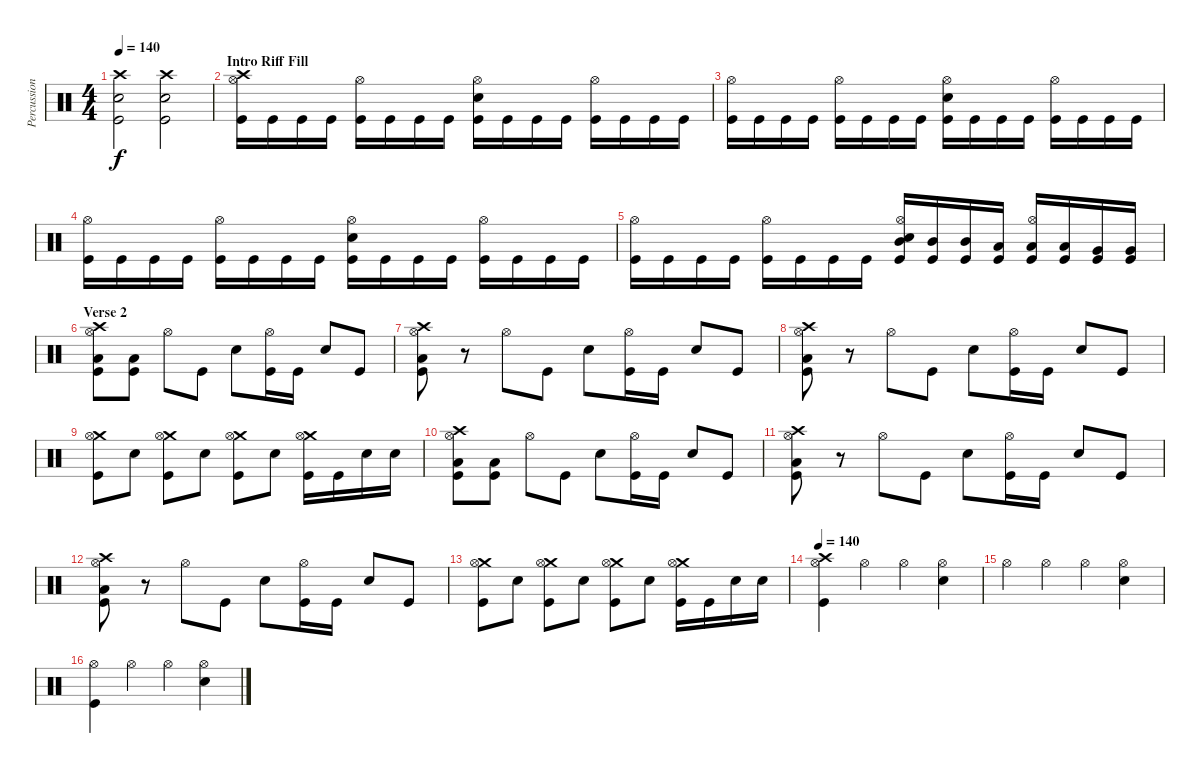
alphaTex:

\track ("Percussion" "Percussion") {instrument percussion}
\staff {score}
\articulation defaults
\ts (4 4)
\tempo 140
\clef neutral
\ks c
("Crash high (hit)" "Electric Snare (hit)" "Kick (hit)").2{dy f} ("Crash high (hit)" "Electric Snare (hit)" "Kick (hit)").2 |
\section ("" "Intro Riff Fill")
("Crash high (hit)" "Hi-Hat (open)" "Kick (hit)").16 "Kick (hit)".16 "Kick (hit)".16 "Kick (hit)".16 ("Hi-Hat (open)" "Kick (hit)").16 "Kick (hit)".16 "Kick (hit)".16 "Kick (hit)".16 ("Hi-Hat (open)" "Electric Snare (hit)" "Kick (hit)").16 "Kick (hit)".16 "Kick (hit)".16 "Kick (hit)".16 ("Hi-Hat (open)" "Kick (hit)").16 "Kick (hit)".16 "Kick (hit)".16 "Kick (hit)".16 |
("Hi-Hat (open)" "Kick (hit)").16 "Kick (hit)".16 "Kick (hit)".16 "Kick (hit)".16 ("Hi-Hat (open)" "Kick (hit)").16 "Kick (hit)".16 "Kick (hit)".16 "Kick (hit)".16 ("Hi-Hat (open)" "Electric Snare (hit)" "Kick (hit)").16 "Kick (hit)".16 "Kick (hit)".16 "Kick (hit)".16 ("Hi-Hat (open)" "Kick (hit)").16 "Kick (hit)".16 "Kick (hit)".16 "Kick (hit)".16 |
("Hi-Hat (open)" "Kick (hit)").16 "Kick (hit)".16 "Kick (hit)".16 "Kick (hit)".16 ("Hi-Hat (open)" "Kick (hit)").16 "Kick (hit)".16 "Kick (hit)".16 "Kick (hit)".16 ("Hi-Hat (open)" "Electric Snare (hit)" "Kick (hit)").16 "Kick (hit)".16 "Kick (hit)".16 "Kick (hit)".16 ("Hi-Hat (open)" "Kick (hit)").16 "Kick (hit)".16 "Kick (hit)".16 "Kick (hit)".16 |
("Hi-Hat (open)" "Kick (hit)").16 "Kick (hit)".16 "Kick (hit)".16 "Kick (hit)".16 ("Hi-Hat (open)" "Kick (hit)").16 "Kick (hit)".16 "Kick (hit)".16 "Kick (hit)".16 ("Mid Tom (hit)" "Hi-Hat (open)" "Electric Snare (hit)" "Kick (hit)").16 ("Mid Tom (hit)" "Kick (hit)").16 ("Mid Tom (hit)" "Kick (hit)").16 ("Low Tom (hit)" "Kick (hit)").16 ("Low Tom (hit)" "Hi-Hat (open)" "Kick (hit)").16 ("Low Tom (hit)" "Kick (hit)").16 ("Very Low Tom (hit)" "Kick (hit)").16 ("Very Low Tom (hit)" "Kick (hit)").16 |
\section ("" "Verse 2")
("Crash high (hit)" "Hi-Hat (open)" "Low Floor Tom (hit)" "Kick (hit)").8 ("Low Floor Tom (hit)" "Kick (hit)").8 "Hi-Hat (open)".8 "Kick (hit)".8 "Electric Snare (hit)".8 ("Hi-Hat (open)" "Kick (hit)").16 "Kick (hit)".16 "Electric Snare (hit)".8 "Kick (hit)".8 |
("Crash high (hit)" "Hi-Hat (open)" "Low Floor Tom (hit)" "Kick (hit)").8 r.8 "Hi-Hat (open)".8 "Kick (hit)".8 "Electric Snare (hit)".8 ("Hi-Hat (open)" "Kick (hit)").16 "Kick (hit)".16 "Electric Snare (hit)".8 "Kick (hit)".8 |
("Crash high (hit)" "Hi-Hat (open)" "Low Floor Tom (hit)" "Kick (hit)").8 r.8 "Hi-Hat (open)".8 "Kick (hit)".8 "Electric Snare (hit)".8 ("Hi-Hat (open)" "Kick (hit)").16 "Kick (hit)".16 "Electric Snare (hit)".8 "Kick (hit)".8 |
("Crash medium (hit)" "Hi-Hat (open)" "Kick (hit)").8 "Electric Snare (hit)".8 ("Crash medium (hit)" "Hi-Hat (open)" "Kick (hit)").8 "Electric Snare (hit)".8 ("Crash medium (hit)" "Hi-Hat (open)" "Kick (hit)").8 "Electric Snare (hit)".8 ("Crash medium (hit)" "Hi-Hat (open)" "Kick (hit)").16 "Kick (hit)".16 "Electric Snare (hit)".16 "Electric Snare (hit)".16 |
("Crash high (hit)" "Hi-Hat (open)" "Low Floor Tom (hit)" "Kick (hit)").8 ("Low Floor Tom (hit)" "Kick (hit)").8 "Hi-Hat (open)".8 "Kick (hit)".8 "Electric Snare (hit)".8 ("Hi-Hat (open)" "Kick (hit)").16 "Kick (hit)".16 "Electric Snare (hit)".8 "Kick (hit)".8 |
("Crash high (hit)" "Hi-Hat (open)" "Low Floor Tom (hit)" "Kick (hit)").8 r.8 "Hi-Hat (open)".8 "Kick (hit)".8 "Electric Snare (hit)".8 ("Hi-Hat (open)" "Kick (hit)").16 "Kick (hit)".16 "Electric Snare (hit)".8 "Kick (hit)".8 |
("Crash high (hit)" "Hi-Hat (open)" "Low Floor Tom (hit)" "Kick (hit)").8 r.8 "Hi-Hat (open)".8 "Kick (hit)".8 "Electric Snare (hit)".8 ("Hi-Hat (open)" "Kick (hit)").16 "Kick (hit)".16 "Electric Snare (hit)".8 "Kick (hit)".8 |
("Crash medium (hit)" "Hi-Hat (open)" "Kick (hit)").8 "Electric Snare (hit)".8 ("Crash medium (hit)" "Hi-Hat (open)" "Kick (hit)").8 "Electric Snare (hit)".8 ("Crash medium (hit)" "Hi-Hat (open)" "Kick (hit)").8 "Electric Snare (hit)".8 ("Crash medium (hit)" "Hi-Hat (open)" "Kick (hit)").16 "Kick (hit)".16 "Electric Snare (hit)".16 "Electric Snare (hit)".16 |
\tempo 140
("Kick (hit)" "Hi-Hat (open)" "Crash high (hit)").4 "Hi-Hat (open)".4 "Hi-Hat (open)".4 ("Electric Snare (hit)" "Hi-Hat (open)").4 |
"Hi-Hat (open)".4 "Hi-Hat (open)".4 "Hi-Hat (open)".4 ("Electric Snare (hit)" "Hi-Hat (open)").4 |
("Kick (hit)" "Hi-Hat (open)").4 "Hi-Hat (open)".4 "Hi-Hat (open)".4 ("Electric Snare (hit)" "Hi-Hat (open)").4
